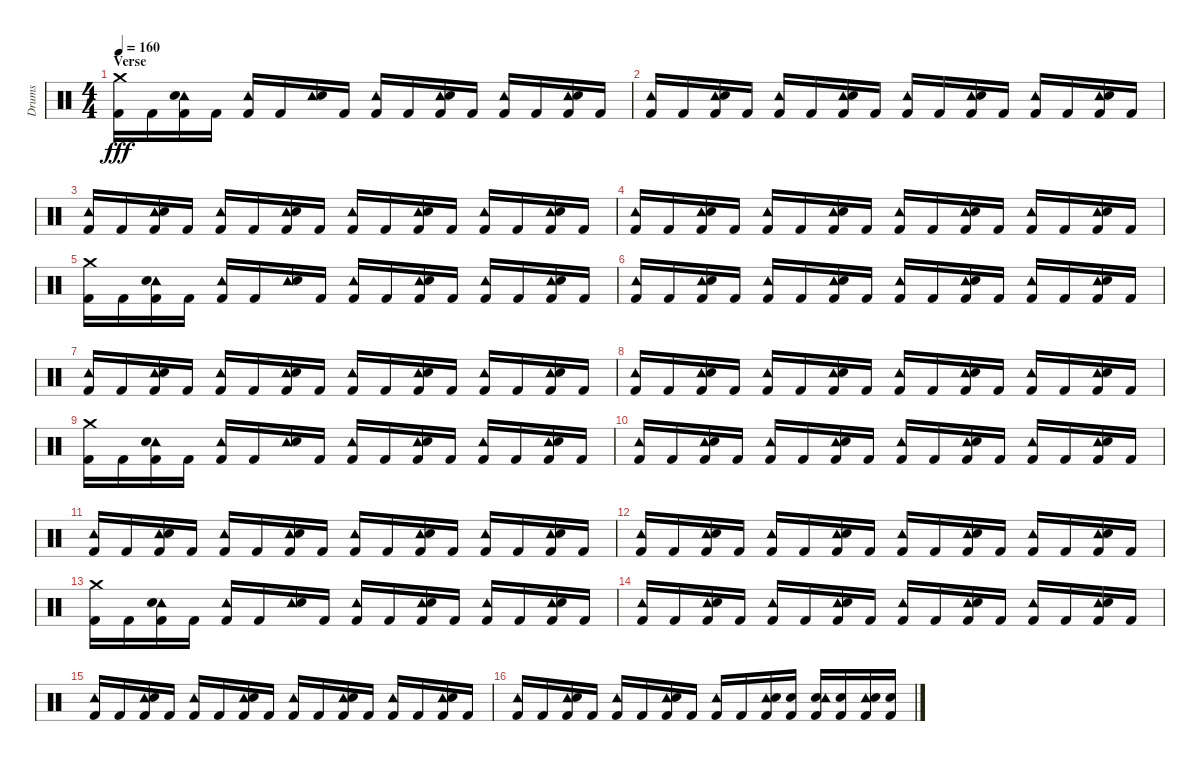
\track ("Drums" "Drums") {instrument percussion}
\staff {score}
\articulation defaults
\ts (4 4)
\section ("" "Verse")
\tempo 160
\clef neutral
\ks c
("Crash medium (hit)" "Kick (hit) 2").16{dy fff} "Kick (hit) 2".16 ("Kick (hit) 2" "Tambourine (hit)" "Electric Snare (hit)").16 "Kick (hit) 2".16 ("Kick (hit) 2" "Tambourine (hit)").16 "Kick (hit) 2".16 ("Tambourine (hit)" "Electric Snare (hit)").16 "Kick (hit) 2".16 ("Kick (hit) 2" "Tambourine (hit)").16 "Kick (hit) 2".16 ("Kick (hit) 2" "Tambourine (hit)" "Electric Snare (hit)").16 "Kick (hit) 2".16 ("Kick (hit) 2" "Tambourine (hit)").16 "Kick (hit) 2".16 ("Kick (hit) 2" "Tambourine (hit)" "Electric Snare (hit)").16 "Kick (hit) 2".16 |
("Kick (hit) 2" "Tambourine (hit)").16 "Kick (hit) 2".16 ("Kick (hit) 2" "Tambourine (hit)" "Electric Snare (hit)").16 "Kick (hit) 2".16 ("Kick (hit) 2" "Tambourine (hit)").16 "Kick (hit) 2".16 ("Kick (hit) 2" "Tambourine (hit)" "Electric Snare (hit)").16 "Kick (hit) 2".16 ("Kick (hit) 2" "Tambourine (hit)").16 "Kick (hit) 2".16 ("Kick (hit) 2" "Tambourine (hit)" "Electric Snare (hit)").16 "Kick (hit) 2".16 ("Kick (hit) 2" "Tambourine (hit)").16 "Kick (hit) 2".16 ("Kick (hit) 2" "Tambourine (hit)" "Electric Snare (hit)").16 "Kick (hit) 2".16 |
("Kick (hit) 2" "Tambourine (hit)").16 "Kick (hit) 2".16 ("Kick (hit) 2" "Tambourine (hit)" "Electric Snare (hit)").16 "Kick (hit) 2".16 ("Kick (hit) 2" "Tambourine (hit)").16 "Kick (hit) 2".16 ("Kick (hit) 2" "Tambourine (hit)" "Electric Snare (hit)").16 "Kick (hit) 2".16 ("Kick (hit) 2" "Tambourine (hit)").16 "Kick (hit) 2".16 ("Kick (hit) 2" "Tambourine (hit)" "Electric Snare (hit)").16 "Kick (hit) 2".16 ("Kick (hit) 2" "Tambourine (hit)").16 "Kick (hit) 2".16 ("Kick (hit) 2" "Tambourine (hit)" "Electric Snare (hit)").16 "Kick (hit) 2".16 |
("Kick (hit) 2" "Tambourine (hit)").16 "Kick (hit) 2".16 ("Kick (hit) 2" "Tambourine (hit)" "Electric Snare (hit)").16 "Kick (hit) 2".16 ("Kick (hit) 2" "Tambourine (hit)").16 "Kick (hit) 2".16 ("Kick (hit) 2" "Tambourine (hit)" "Electric Snare (hit)").16 "Kick (hit) 2".16 ("Kick (hit) 2" "Tambourine (hit)").16 "Kick (hit) 2".16 ("Kick (hit) 2" "Tambourine (hit)" "Electric Snare (hit)").16 "Kick (hit) 2".16 ("Kick (hit) 2" "Tambourine (hit)").16 "Kick (hit) 2".16 ("Kick (hit) 2" "Tambourine (hit)" "Electric Snare (hit)").16 "Kick (hit) 2".16 |
("Crash medium (hit)" "Kick (hit) 2").16 "Kick (hit) 2".16 ("Kick (hit) 2" "Tambourine (hit)" "Electric Snare (hit)").16 "Kick (hit) 2".16 ("Kick (hit) 2" "Tambourine (hit)").16 "Kick (hit) 2".16 ("Tambourine (hit)" "Electric Snare (hit)").16 "Kick (hit) 2".16 ("Kick (hit) 2" "Tambourine (hit)").16 "Kick (hit) 2".16 ("Kick (hit) 2" "Tambourine (hit)" "Electric Snare (hit)").16 "Kick (hit) 2".16 ("Kick (hit) 2" "Tambourine (hit)").16 "Kick (hit) 2".16 ("Kick (hit) 2" "Tambourine (hit)" "Electric Snare (hit)").16 "Kick (hit) 2".16 |
("Kick (hit) 2" "Tambourine (hit)").16 "Kick (hit) 2".16 ("Kick (hit) 2" "Tambourine (hit)" "Electric Snare (hit)").16 "Kick (hit) 2".16 ("Kick (hit) 2" "Tambourine (hit)").16 "Kick (hit) 2".16 ("Kick (hit) 2" "Tambourine (hit)" "Electric Snare (hit)").16 "Kick (hit) 2".16 ("Kick (hit) 2" "Tambourine (hit)").16 "Kick (hit) 2".16 ("Kick (hit) 2" "Tambourine (hit)" "Electric Snare (hit)").16 "Kick (hit) 2".16 ("Kick (hit) 2" "Tambourine (hit)").16 "Kick (hit) 2".16 ("Kick (hit) 2" "Tambourine (hit)" "Electric Snare (hit)").16 "Kick (hit) 2".16 |
("Kick (hit) 2" "Tambourine (hit)").16 "Kick (hit) 2".16 ("Kick (hit) 2" "Tambourine (hit)" "Electric Snare (hit)").16 "Kick (hit) 2".16 ("Kick (hit) 2" "Tambourine (hit)").16 "Kick (hit) 2".16 ("Kick (hit) 2" "Tambourine (hit)" "Electric Snare (hit)").16 "Kick (hit) 2".16 ("Kick (hit) 2" "Tambourine (hit)").16 "Kick (hit) 2".16 ("Kick (hit) 2" "Tambourine (hit)" "Electric Snare (hit)").16 "Kick (hit) 2".16 ("Kick (hit) 2" "Tambourine (hit)").16 "Kick (hit) 2".16 ("Kick (hit) 2" "Tambourine (hit)" "Electric Snare (hit)").16 "Kick (hit) 2".16 |
("Kick (hit) 2" "Tambourine (hit)").16 "Kick (hit) 2".16 ("Kick (hit) 2" "Tambourine (hit)" "Electric Snare (hit)").16 "Kick (hit) 2".16 ("Kick (hit) 2" "Tambourine (hit)").16 "Kick (hit) 2".16 ("Kick (hit) 2" "Tambourine (hit)" "Electric Snare (hit)").16 "Kick (hit) 2".16 ("Kick (hit) 2" "Tambourine (hit)").16 "Kick (hit) 2".16 ("Kick (hit) 2" "Tambourine (hit)" "Electric Snare (hit)").16 "Kick (hit) 2".16 ("Kick (hit) 2" "Tambourine (hit)").16 "Kick (hit) 2".16 ("Kick (hit) 2" "Tambourine (hit)" "Electric Snare (hit)").16 "Kick (hit) 2".16 |
("Crash medium (hit)" "Kick (hit) 2").16 "Kick (hit) 2".16 ("Kick (hit) 2" "Tambourine (hit)" "Electric Snare (hit)").16 "Kick (hit) 2".16 ("Kick (hit) 2" "Tambourine (hit)").16 "Kick (hit) 2".16 ("Tambourine (hit)" "Electric Snare (hit)").16 "Kick (hit) 2".16 ("Kick (hit) 2" "Tambourine (hit)").16 "Kick (hit) 2".16 ("Kick (hit) 2" "Tambourine (hit)" "Electric Snare (hit)").16 "Kick (hit) 2".16 ("Kick (hit) 2" "Tambourine (hit)").16 "Kick (hit) 2".16 ("Kick (hit) 2" "Tambourine (hit)" "Electric Snare (hit)").16 "Kick (hit) 2".16 |
("Kick (hit) 2" "Tambourine (hit)").16 "Kick (hit) 2".16 ("Kick (hit) 2" "Tambourine (hit)" "Electric Snare (hit)").16 "Kick (hit) 2".16 ("Kick (hit) 2" "Tambourine (hit)").16 "Kick (hit) 2".16 ("Kick (hit) 2" "Tambourine (hit)" "Electric Snare (hit)").16 "Kick (hit) 2".16 ("Kick (hit) 2" "Tambourine (hit)").16 "Kick (hit) 2".16 ("Kick (hit) 2" "Tambourine (hit)" "Electric Snare (hit)").16 "Kick (hit) 2".16 ("Kick (hit) 2" "Tambourine (hit)").16 "Kick (hit) 2".16 ("Kick (hit) 2" "Tambourine (hit)" "Electric Snare (hit)").16 "Kick (hit) 2".16 |
("Kick (hit) 2" "Tambourine (hit)").16 "Kick (hit) 2".16 ("Kick (hit) 2" "Tambourine (hit)" "Electric Snare (hit)").16 "Kick (hit) 2".16 ("Kick (hit) 2" "Tambourine (hit)").16 "Kick (hit) 2".16 ("Kick (hit) 2" "Tambourine (hit)" "Electric Snare (hit)").16 "Kick (hit) 2".16 ("Kick (hit) 2" "Tambourine (hit)").16 "Kick (hit) 2".16 ("Kick (hit) 2" "Tambourine (hit)" "Electric Snare (hit)").16 "Kick (hit) 2".16 ("Kick (hit) 2" "Tambourine (hit)").16 "Kick (hit) 2".16 ("Kick (hit) 2" "Tambourine (hit)" "Electric Snare (hit)").16 "Kick (hit) 2".16 |
("Kick (hit) 2" "Tambourine (hit)").16 "Kick (hit) 2".16 ("Kick (hit) 2" "Tambourine (hit)" "Electric Snare (hit)").16 "Kick (hit) 2".16 ("Kick (hit) 2" "Tambourine (hit)").16 "Kick (hit) 2".16 ("Kick (hit) 2" "Tambourine (hit)" "Electric Snare (hit)").16 "Kick (hit) 2".16 ("Kick (hit) 2" "Tambourine (hit)").16 "Kick (hit) 2".16 ("Kick (hit) 2" "Tambourine (hit)" "Electric Snare (hit)").16 "Kick (hit) 2".16 ("Kick (hit) 2" "Tambourine (hit)").16 "Kick (hit) 2".16 ("Kick (hit) 2" "Tambourine (hit)" "Electric Snare (hit)").16 "Kick (hit) 2".16 |
("Crash medium (hit)" "Kick (hit) 2").16 "Kick (hit) 2".16 ("Kick (hit) 2" "Tambourine (hit)" "Electric Snare (hit)").16 "Kick (hit) 2".16 ("Kick (hit) 2" "Tambourine (hit)").16 "Kick (hit) 2".16 ("Tambourine (hit)" "Electric Snare (hit)").16 "Kick (hit) 2".16 ("Kick (hit) 2" "Tambourine (hit)").16 "Kick (hit) 2".16 ("Kick (hit) 2" "Tambourine (hit)" "Electric Snare (hit)").16 "Kick (hit) 2".16 ("Kick (hit) 2" "Tambourine (hit)").16 "Kick (hit) 2".16 ("Kick (hit) 2" "Tambourine (hit)" "Electric Snare (hit)").16 "Kick (hit) 2".16 |
("Kick (hit) 2" "Tambourine (hit)").16 "Kick (hit) 2".16 ("Kick (hit) 2" "Tambourine (hit)" "Electric Snare (hit)").16 "Kick (hit) 2".16 ("Kick (hit) 2" "Tambourine (hit)").16 "Kick (hit) 2".16 ("Kick (hit) 2" "Tambourine (hit)" "Electric Snare (hit)").16 "Kick (hit) 2".16 ("Kick (hit) 2" "Tambourine (hit)").16 "Kick (hit) 2".16 ("Kick (hit) 2" "Tambourine (hit)" "Electric Snare (hit)").16 "Kick (hit) 2".16 ("Kick (hit) 2" "Tambourine (hit)").16 "Kick (hit) 2".16 ("Kick (hit) 2" "Tambourine (hit)" "Electric Snare (hit)").16 "Kick (hit) 2".16 |
("Kick (hit) 2" "Tambourine (hit)").16 "Kick (hit) 2".16 ("Kick (hit) 2" "Tambourine (hit)" "Electric Snare (hit)").16 "Kick (hit) 2".16 ("Kick (hit) 2" "Tambourine (hit)").16 "Kick (hit) 2".16 ("Kick (hit) 2" "Tambourine (hit)" "Electric Snare (hit)").16 "Kick (hit) 2".16 ("Kick (hit) 2" "Tambourine (hit)").16 "Kick (hit) 2".16 ("Kick (hit) 2" "Tambourine (hit)" "Electric Snare (hit)").16 "Kick (hit) 2".16 ("Kick (hit) 2" "Tambourine (hit)").16 "Kick (hit) 2".16 ("Kick (hit) 2" "Tambourine (hit)" "Electric Snare (hit)").16 "Kick (hit) 2".16 |
("Kick (hit) 2" "Tambourine (hit)").16 "Kick (hit) 2".16 ("Kick (hit) 2" "Tambourine (hit)" "Electric Snare (hit)").16 "Kick (hit) 2".16 ("Kick (hit) 2" "Tambourine (hit)").16 "Kick (hit) 2".16 ("Kick (hit) 2" "Tambourine (hit)" "Electric Snare (hit)").16 "Kick (hit) 2".16 ("Kick (hit) 2" "Tambourine (hit)").16 "Kick (hit) 2".16 ("Kick (hit) 2" "Tambourine (hit)" "Electric Snare (hit)").16 ("Kick (hit) 2" "Electric Snare (hit)").16 ("Electric Snare (hit)" "Kick (hit) 2" "Tambourine (hit)").16 ("Electric Snare (hit)" "Kick (hit) 2").16 ("Kick (hit) 2" "Tambourine (hit)" "Electric Snare (hit)").16 ("Electric Snare (hit)" "Kick (hit) 2").16
